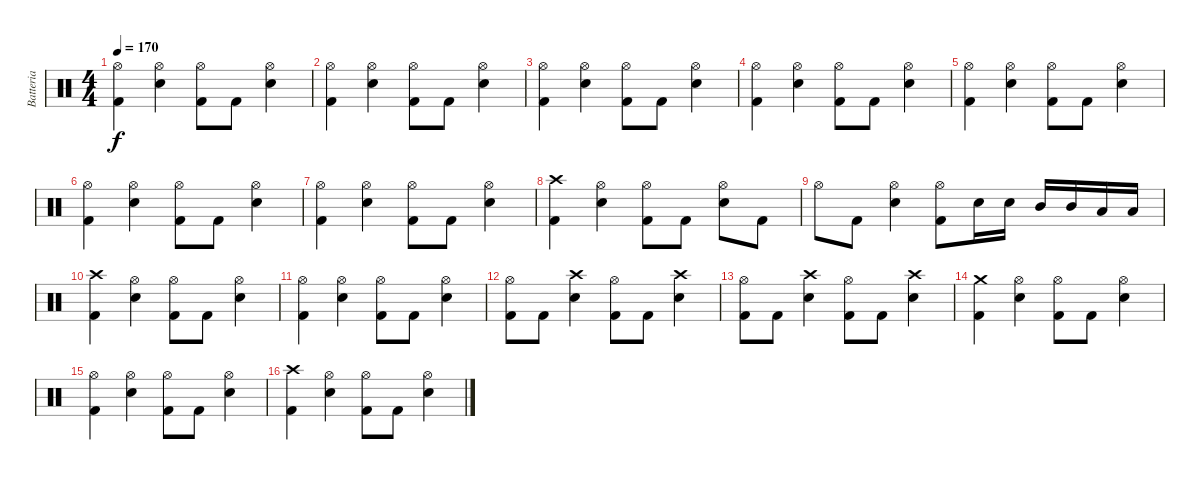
\track ("Batteria" "Batteria") {instrument percussion}
\staff {score}
\articulation defaults
\ts (4 4)
\tempo 170
\clef neutral
\ks c
("Hi-Hat (open)" "Kick (hit) 2").4{dy f} ("Hi-Hat (open)" "Snare (hit) 2").4 ("Hi-Hat (open)" "Kick (hit) 2").8 "Kick (hit) 2".8 ("Hi-Hat (open)" "Snare (hit) 2").4 |
("Hi-Hat (open)" "Kick (hit) 2").4 ("Hi-Hat (open)" "Snare (hit) 2").4 ("Hi-Hat (open)" "Kick (hit) 2").8 "Kick (hit) 2".8 ("Hi-Hat (open)" "Snare (hit) 2").4 |
("Hi-Hat (open)" "Kick (hit) 2").4 ("Hi-Hat (open)" "Snare (hit) 2").4 ("Hi-Hat (open)" "Kick (hit) 2").8 "Kick (hit) 2".8 ("Hi-Hat (open)" "Snare (hit) 2").4 |
("Hi-Hat (open)" "Kick (hit) 2").4 ("Hi-Hat (open)" "Snare (hit) 2").4 ("Hi-Hat (open)" "Kick (hit) 2").8 "Kick (hit) 2".8 ("Hi-Hat (open)" "Snare (hit) 2").4 |
("Hi-Hat (open)" "Kick (hit) 2").4 ("Hi-Hat (open)" "Snare (hit) 2").4 ("Hi-Hat (open)" "Kick (hit) 2").8 "Kick (hit) 2".8 ("Hi-Hat (open)" "Snare (hit) 2").4 |
("Hi-Hat (open)" "Kick (hit) 2").4 ("Hi-Hat (open)" "Snare (hit) 2").4 ("Hi-Hat (open)" "Kick (hit) 2").8 "Kick (hit) 2".8 ("Hi-Hat (open)" "Snare (hit) 2").4 |
("Hi-Hat (open)" "Kick (hit) 2").4 ("Hi-Hat (open)" "Snare (hit) 2").4 ("Hi-Hat (open)" "Kick (hit) 2").8 "Kick (hit) 2".8 ("Hi-Hat (open)" "Snare (hit) 2").4 |
("Crash high (hit)" "Kick (hit) 2").4 ("Hi-Hat (open)" "Snare (hit) 2").4 ("Hi-Hat (open)" "Kick (hit) 2").8 "Kick (hit) 2".8 ("Hi-Hat (open)" "Snare (hit) 2").8 "Kick (hit) 2".8 |
"Hi-Hat (open)".8 "Kick (hit) 2".8 ("Hi-Hat (open)" "Snare (hit) 2").4 ("Hi-Hat (open)" "Kick (hit) 2").8 "Snare (hit) 2".16 "Snare (hit) 2".16 "Mid Tom (hit)".16 "Mid Tom (hit)".16 "Low Tom (hit)".16 "Low Tom (hit)".16 |
("Crash high (hit)" "Kick (hit) 2").4 ("Hi-Hat (open)" "Snare (hit) 2").4 ("Hi-Hat (open)" "Kick (hit) 2").8 "Kick (hit) 2".8 ("Hi-Hat (open)" "Snare (hit) 2").4 |
("Hi-Hat (open)" "Kick (hit) 2").4 ("Hi-Hat (open)" "Snare (hit) 2").4 ("Hi-Hat (open)" "Kick (hit) 2").8 "Kick (hit) 2".8 ("Hi-Hat (open)" "Snare (hit) 2").4 |
("Hi-Hat (open)" "Kick (hit) 2").8 "Kick (hit) 2".8 ("Crash high (hit)" "Snare (hit) 2").4 ("Hi-Hat (open)" "Kick (hit) 2").8 "Kick (hit) 2".8 ("Crash high (hit)" "Snare (hit) 2").4 |
("Hi-Hat (open)" "Kick (hit) 2").8 "Kick (hit) 2".8 ("Crash high (hit)" "Snare (hit) 2").4 ("Hi-Hat (open)" "Kick (hit) 2").8 "Kick (hit) 2".8 ("Crash high (hit)" "Snare (hit) 2").4 |
("Crash medium (hit)" "Kick (hit) 2").4 ("Hi-Hat (open)" "Snare (hit) 2").4 ("Hi-Hat (open)" "Kick (hit) 2").8 "Kick (hit) 2".8 ("Hi-Hat (open)" "Snare (hit) 2").4 |
("Hi-Hat (open)" "Kick (hit) 2").4 ("Hi-Hat (open)" "Snare (hit) 2").4 ("Hi-Hat (open)" "Kick (hit) 2").8 "Kick (hit) 2".8 ("Hi-Hat (open)" "Snare (hit) 2").4 |
("Crash high (hit)" "Kick (hit) 2").4 ("Hi-Hat (open)" "Snare (hit) 2").4 ("Hi-Hat (open)" "Kick (hit) 2").8 "Kick (hit) 2".8 ("Hi-Hat (open)" "Snare (hit) 2").4
